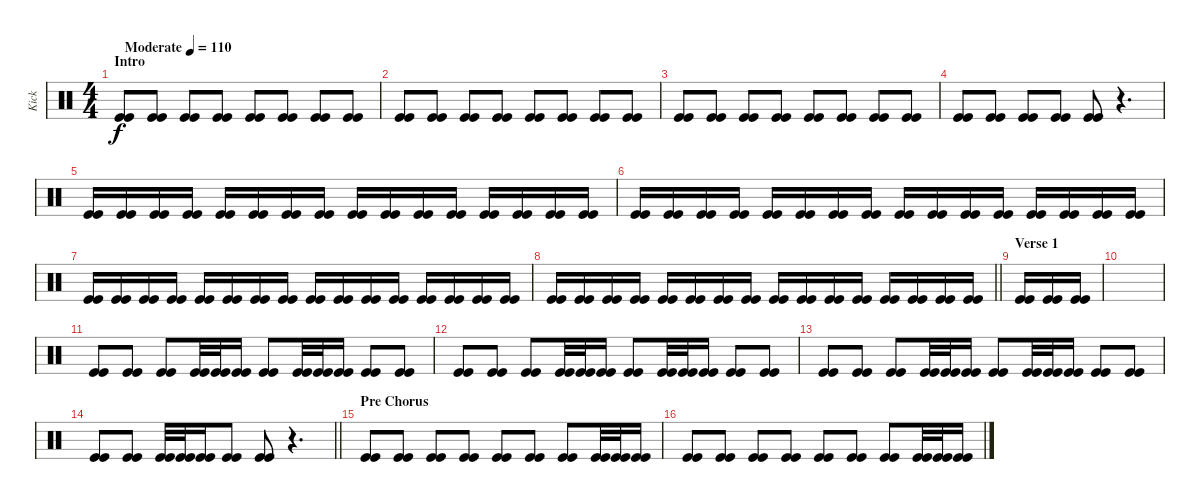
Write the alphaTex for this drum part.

\track ("Kick" "Kick") {instrument percussion}
\staff {score}
\articulation defaults
\ts (4 4)
\section ("" "Intro")
\tempo (110 "Moderate")
\clef neutral
\ks c
("Kick (hit)" "Kick (hit)").8{dy f} ("Kick (hit)" "Kick (hit)").8 ("Kick (hit)" "Kick (hit)").8 ("Kick (hit)" "Kick (hit)").8 ("Kick (hit)" "Kick (hit)").8 ("Kick (hit)" "Kick (hit)").8 ("Kick (hit)" "Kick (hit)").8 ("Kick (hit)" "Kick (hit)").8 |
("Kick (hit)" "Kick (hit)").8 ("Kick (hit)" "Kick (hit)").8 ("Kick (hit)" "Kick (hit)").8 ("Kick (hit)" "Kick (hit)").8 ("Kick (hit)" "Kick (hit)").8 ("Kick (hit)" "Kick (hit)").8 ("Kick (hit)" "Kick (hit)").8 ("Kick (hit)" "Kick (hit)").8 |
("Kick (hit)" "Kick (hit)").8 ("Kick (hit)" "Kick (hit)").8 ("Kick (hit)" "Kick (hit)").8 ("Kick (hit)" "Kick (hit)").8 ("Kick (hit)" "Kick (hit)").8 ("Kick (hit)" "Kick (hit)").8 ("Kick (hit)" "Kick (hit)").8 ("Kick (hit)" "Kick (hit)").8 |
("Kick (hit)" "Kick (hit)").8 ("Kick (hit)" "Kick (hit)").8 ("Kick (hit)" "Kick (hit)").8 ("Kick (hit)" "Kick (hit)").8 ("Kick (hit)" "Kick (hit)").8 r.4{d} |
("Kick (hit)" "Kick (hit)").16 ("Kick (hit)" "Kick (hit)").16 ("Kick (hit)" "Kick (hit)").16 ("Kick (hit)" "Kick (hit)").16 ("Kick (hit)" "Kick (hit)").16 ("Kick (hit)" "Kick (hit)").16 ("Kick (hit)" "Kick (hit)").16 ("Kick (hit)" "Kick (hit)").16 ("Kick (hit)" "Kick (hit)").16 ("Kick (hit)" "Kick (hit)").16 ("Kick (hit)" "Kick (hit)").16 ("Kick (hit)" "Kick (hit)").16 ("Kick (hit)" "Kick (hit)").16 ("Kick (hit)" "Kick (hit)").16 ("Kick (hit)" "Kick (hit)").16 ("Kick (hit)" "Kick (hit)").16 |
("Kick (hit)" "Kick (hit)").16 ("Kick (hit)" "Kick (hit)").16 ("Kick (hit)" "Kick (hit)").16 ("Kick (hit)" "Kick (hit)").16 ("Kick (hit)" "Kick (hit)").16 ("Kick (hit)" "Kick (hit)").16 ("Kick (hit)" "Kick (hit)").16 ("Kick (hit)" "Kick (hit)").16 ("Kick (hit)" "Kick (hit)").16 ("Kick (hit)" "Kick (hit)").16 ("Kick (hit)" "Kick (hit)").16 ("Kick (hit)" "Kick (hit)").16 ("Kick (hit)" "Kick (hit)").16 ("Kick (hit)" "Kick (hit)").16 ("Kick (hit)" "Kick (hit)").16 ("Kick (hit)" "Kick (hit)").16 |
("Kick (hit)" "Kick (hit)").16 ("Kick (hit)" "Kick (hit)").16 ("Kick (hit)" "Kick (hit)").16 ("Kick (hit)" "Kick (hit)").16 ("Kick (hit)" "Kick (hit)").16 ("Kick (hit)" "Kick (hit)").16 ("Kick (hit)" "Kick (hit)").16 ("Kick (hit)" "Kick (hit)").16 ("Kick (hit)" "Kick (hit)").16 ("Kick (hit)" "Kick (hit)").16 ("Kick (hit)" "Kick (hit)").16 ("Kick (hit)" "Kick (hit)").16 ("Kick (hit)" "Kick (hit)").16 ("Kick (hit)" "Kick (hit)").16 ("Kick (hit)" "Kick (hit)").16 ("Kick (hit)" "Kick (hit)").16 |
\barLineRight lightlight
("Kick (hit)" "Kick (hit)").16 ("Kick (hit)" "Kick (hit)").16 ("Kick (hit)" "Kick (hit)").16 ("Kick (hit)" "Kick (hit)").16 ("Kick (hit)" "Kick (hit)").16 ("Kick (hit)" "Kick (hit)").16 ("Kick (hit)" "Kick (hit)").16 ("Kick (hit)" "Kick (hit)").16 ("Kick (hit)" "Kick (hit)").16 ("Kick (hit)" "Kick (hit)").16 ("Kick (hit)" "Kick (hit)").16 ("Kick (hit)" "Kick (hit)").16 ("Kick (hit)" "Kick (hit)").16 ("Kick (hit)" "Kick (hit)").16 ("Kick (hit)" "Kick (hit)").16 ("Kick (hit)" "Kick (hit)").16 |
\section ("" "Verse 1")
("Kick (hit)" "Kick (hit)").16 ("Kick (hit)" "Kick (hit)").16 ("Kick (hit)" "Kick (hit)").16 |
|
("Kick (hit)" "Kick (hit)").8 ("Kick (hit)" "Kick (hit)").8 ("Kick (hit)" "Kick (hit)").8 ("Kick (hit)" "Kick (hit)").32 ("Kick (hit)" "Kick (hit)").32 ("Kick (hit)" "Kick (hit)").16 ("Kick (hit)" "Kick (hit)").8 ("Kick (hit)" "Kick (hit)").32 ("Kick (hit)" "Kick (hit)").32 ("Kick (hit)" "Kick (hit)").16 ("Kick (hit)" "Kick (hit)").8 ("Kick (hit)" "Kick (hit)").8 |
("Kick (hit)" "Kick (hit)").8 ("Kick (hit)" "Kick (hit)").8 ("Kick (hit)" "Kick (hit)").8 ("Kick (hit)" "Kick (hit)").32 ("Kick (hit)" "Kick (hit)").32 ("Kick (hit)" "Kick (hit)").16 ("Kick (hit)" "Kick (hit)").8 ("Kick (hit)" "Kick (hit)").32 ("Kick (hit)" "Kick (hit)").32 ("Kick (hit)" "Kick (hit)").16 ("Kick (hit)" "Kick (hit)").8 ("Kick (hit)" "Kick (hit)").8 |
("Kick (hit)" "Kick (hit)").8 ("Kick (hit)" "Kick (hit)").8 ("Kick (hit)" "Kick (hit)").8 ("Kick (hit)" "Kick (hit)").32 ("Kick (hit)" "Kick (hit)").32 ("Kick (hit)" "Kick (hit)").16 ("Kick (hit)" "Kick (hit)").8 ("Kick (hit)" "Kick (hit)").32 ("Kick (hit)" "Kick (hit)").32 ("Kick (hit)" "Kick (hit)").16 ("Kick (hit)" "Kick (hit)").8 ("Kick (hit)" "Kick (hit)").8 |
\barLineRight lightlight
("Kick (hit)" "Kick (hit)").8 ("Kick (hit)" "Kick (hit)").8 ("Kick (hit)" "Kick (hit)").32 ("Kick (hit)" "Kick (hit)").32 ("Kick (hit)" "Kick (hit)").16 ("Kick (hit)" "Kick (hit)").8 ("Kick (hit)" "Kick (hit)").8 r.4{d} |
\section ("" "Pre Chorus")
("Kick (hit)" "Kick (hit)").8 ("Kick (hit)" "Kick (hit)").8 ("Kick (hit)" "Kick (hit)").8 ("Kick (hit)" "Kick (hit)").8 ("Kick (hit)" "Kick (hit)").8 ("Kick (hit)" "Kick (hit)").8 ("Kick (hit)" "Kick (hit)").8 ("Kick (hit)" "Kick (hit)").32 ("Kick (hit)" "Kick (hit)").32 ("Kick (hit)" "Kick (hit)").16 |
("Kick (hit)" "Kick (hit)").8 ("Kick (hit)" "Kick (hit)").8 ("Kick (hit)" "Kick (hit)").8 ("Kick (hit)" "Kick (hit)").8 ("Kick (hit)" "Kick (hit)").8 ("Kick (hit)" "Kick (hit)").8 ("Kick (hit)" "Kick (hit)").8 ("Kick (hit)" "Kick (hit)").32 ("Kick (hit)" "Kick (hit)").32 ("Kick (hit)" "Kick (hit)").16
